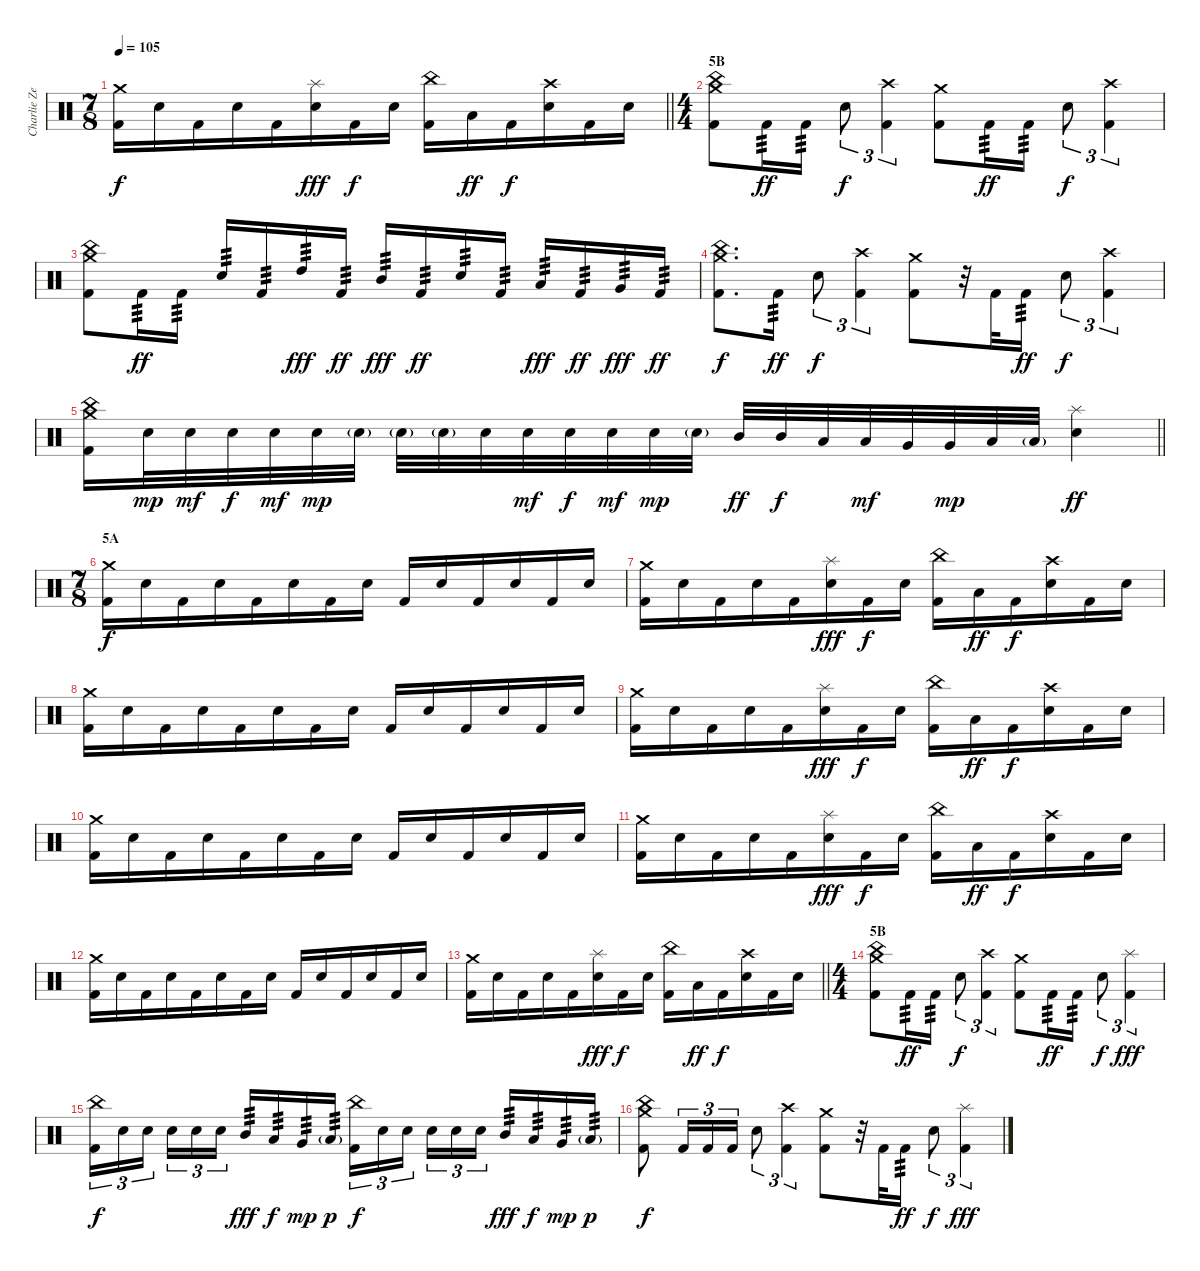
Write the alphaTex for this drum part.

\track ("Charlie Zeleny - Drums" "Charlie Ze") {instrument percussion}
\staff {score}
\articulation defaults
\ts (7 8)
\tempo 105
\clef neutral
\barLineRight lightlight
\ks c
("Crash medium (hit)" "Kick (hit) 2").16{dy f} "Electric Snare (hit)".16 "Kick (hit) 2".16 "Electric Snare (hit)".16 "Kick (hit) 2".16 ("Splash (hit)" "Electric Snare (hit)").16{dy fff} "Kick (hit) 2".16{dy f} "Electric Snare (hit)".16 ("China (hit)" "Kick (hit) 2").16 "Low Floor Tom (hit)".16{dy ff} "Kick (hit) 2".16{dy f} ("Crash high (hit)" "Electric Snare (hit)").16 "Kick (hit) 2".16 "Electric Snare (hit)".16 |
\ts (4 4)
\section ("" "5B")
("Crash medium (hit)" "China (hit)" "Kick (hit) 2").8 "Kick (hit) 2".16{tp 3 dy ff} "Kick (hit) 2".16{tp 3} "Electric Snare (hit)".8{tu (3 2) dy f} ("Crash high (hit)" "Kick (hit) 2").4{tu (3 2)} ("Crash medium (hit)" "Kick (hit) 2").8 "Kick (hit) 2".16{tp 3 dy ff} "Kick (hit) 2".16{tp 3} "Electric Snare (hit)".8{tu (3 2) dy f} ("Crash high (hit)" "Kick (hit) 2").4{tu (3 2)} |
("Crash medium (hit)" "China (hit)" "Kick (hit) 2").8 "Kick (hit) 2".16{tp 3 dy ff} "Kick (hit) 2".16{tp 3} "Electric Snare (hit)".16{tp 3} "Kick (hit) 2".16{tp 3} "High Tom (hit)".16{tp 3 dy fff} "Kick (hit) 2".16{tp 3 dy ff} "Mid Tom (hit)".16{tp 3 dy fff} "Kick (hit) 2".16{tp 3 dy ff} "Electric Snare (hit)".16{tp 3} "Kick (hit) 2".16{tp 3} "Low Tom (hit)".16{tp 3 dy fff} "Kick (hit) 2".16{tp 3 dy ff} "Very Low Tom (hit)".16{tp 3 dy fff} "Kick (hit) 2".16{tp 3 dy ff} |
("Crash medium (hit)" "China (hit)" "Kick (hit) 2").8{d dy f} "Kick (hit) 2".16{tp 3 dy ff} "Electric Snare (hit)".8{tu (3 2) dy f} ("Crash high (hit)" "Kick (hit) 2").4{tu (3 2)} ("Crash medium (hit)" "Kick (hit) 2").8 r.32 "Kick (hit) 2".32 "Kick (hit) 2".16{tp 3 dy ff} "Electric Snare (hit)".8{tu (3 2) dy f} ("Crash high (hit)" "Kick (hit) 2").4{tu (3 2)} |
\barLineRight lightlight
("Crash medium (hit)" "China (hit)" "Kick (hit) 2").16 "Electric Snare (hit)".32{dy mp} "Electric Snare (hit)".32{dy mf} "Electric Snare (hit)".32{dy f} "Electric Snare (hit)".32{dy mf} "Electric Snare (hit)".32{dy mp} "Electric Snare (hit)"{g}.32 "Electric Snare (hit)"{g}.32 "Electric Snare (hit)"{g}.32 "Electric Snare (hit)".32 "Electric Snare (hit)".32{dy mf} "Electric Snare (hit)".32{dy f} "Electric Snare (hit)".32{dy mf} "Electric Snare (hit)".32{dy mp} "Electric Snare (hit)"{g}.32 "Mid Tom (hit)".32{dy ff} "Mid Tom (hit)".32{dy f} "Low Tom (hit)".32 "Low Tom (hit)".32{dy mf} "Very Low Tom (hit)".32 "Very Low Tom (hit)".32{dy mp} "Low Floor Tom (hit)".32 "Low Floor Tom (hit)"{g}.32 ("Splash (hit)" "Electric Snare (hit)").4{dy ff} |
\ts (7 8)
\section ("" "5A")
("Crash medium (hit)" "Kick (hit) 2").16{dy f} "Electric Snare (hit)".16 "Kick (hit) 2".16 "Electric Snare (hit)".16 "Kick (hit) 2".16 "Electric Snare (hit)".16 "Kick (hit) 2".16 "Electric Snare (hit)".16 "Kick (hit) 2".16 "Electric Snare (hit)".16 "Kick (hit) 2".16 "Electric Snare (hit)".16 "Kick (hit) 2".16 "Electric Snare (hit)".16 |
("Crash medium (hit)" "Kick (hit) 2").16 "Electric Snare (hit)".16 "Kick (hit) 2".16 "Electric Snare (hit)".16 "Kick (hit) 2".16 ("Splash (hit)" "Electric Snare (hit)").16{dy fff} "Kick (hit) 2".16{dy f} "Electric Snare (hit)".16 ("China (hit)" "Kick (hit) 2").16 "Low Floor Tom (hit)".16{dy ff} "Kick (hit) 2".16{dy f} ("Crash high (hit)" "Electric Snare (hit)").16 "Kick (hit) 2".16 "Electric Snare (hit)".16 |
("Crash medium (hit)" "Kick (hit) 2").16 "Electric Snare (hit)".16 "Kick (hit) 2".16 "Electric Snare (hit)".16 "Kick (hit) 2".16 "Electric Snare (hit)".16 "Kick (hit) 2".16 "Electric Snare (hit)".16 "Kick (hit) 2".16 "Electric Snare (hit)".16 "Kick (hit) 2".16 "Electric Snare (hit)".16 "Kick (hit) 2".16 "Electric Snare (hit)".16 |
("Crash medium (hit)" "Kick (hit) 2").16 "Electric Snare (hit)".16 "Kick (hit) 2".16 "Electric Snare (hit)".16 "Kick (hit) 2".16 ("Splash (hit)" "Electric Snare (hit)").16{dy fff} "Kick (hit) 2".16{dy f} "Electric Snare (hit)".16 ("China (hit)" "Kick (hit) 2").16 "Low Floor Tom (hit)".16{dy ff} "Kick (hit) 2".16{dy f} ("Crash high (hit)" "Electric Snare (hit)").16 "Kick (hit) 2".16 "Electric Snare (hit)".16 |
("Crash medium (hit)" "Kick (hit) 2").16 "Electric Snare (hit)".16 "Kick (hit) 2".16 "Electric Snare (hit)".16 "Kick (hit) 2".16 "Electric Snare (hit)".16 "Kick (hit) 2".16 "Electric Snare (hit)".16 "Kick (hit) 2".16 "Electric Snare (hit)".16 "Kick (hit) 2".16 "Electric Snare (hit)".16 "Kick (hit) 2".16 "Electric Snare (hit)".16 |
("Crash medium (hit)" "Kick (hit) 2").16 "Electric Snare (hit)".16 "Kick (hit) 2".16 "Electric Snare (hit)".16 "Kick (hit) 2".16 ("Splash (hit)" "Electric Snare (hit)").16{dy fff} "Kick (hit) 2".16{dy f} "Electric Snare (hit)".16 ("China (hit)" "Kick (hit) 2").16 "Low Floor Tom (hit)".16{dy ff} "Kick (hit) 2".16{dy f} ("Crash high (hit)" "Electric Snare (hit)").16 "Kick (hit) 2".16 "Electric Snare (hit)".16 |
("Crash medium (hit)" "Kick (hit) 2").16 "Electric Snare (hit)".16 "Kick (hit) 2".16 "Electric Snare (hit)".16 "Kick (hit) 2".16 "Electric Snare (hit)".16 "Kick (hit) 2".16 "Electric Snare (hit)".16 "Kick (hit) 2".16 "Electric Snare (hit)".16 "Kick (hit) 2".16 "Electric Snare (hit)".16 "Kick (hit) 2".16 "Electric Snare (hit)".16 |
\barLineRight lightlight
("Crash medium (hit)" "Kick (hit) 2").16 "Electric Snare (hit)".16 "Kick (hit) 2".16 "Electric Snare (hit)".16 "Kick (hit) 2".16 ("Splash (hit)" "Electric Snare (hit)").16{dy fff} "Kick (hit) 2".16{dy f} "Electric Snare (hit)".16 ("China (hit)" "Kick (hit) 2").16 "Low Floor Tom (hit)".16{dy ff} "Kick (hit) 2".16{dy f} ("Crash high (hit)" "Electric Snare (hit)").16 "Kick (hit) 2".16 "Electric Snare (hit)".16 |
\ts (4 4)
\section ("" "5B")
("Crash medium (hit)" "China (hit)" "Kick (hit) 2").8 "Kick (hit) 2".16{tp 3 dy ff} "Kick (hit) 2".16{tp 3} "Electric Snare (hit)".8{tu (3 2) dy f} ("Crash high (hit)" "Kick (hit) 2").4{tu (3 2)} ("Crash medium (hit)" "Kick (hit) 2").8 "Kick (hit) 2".16{tp 3 dy ff} "Kick (hit) 2".16{tp 3} "Electric Snare (hit)".8{tu (3 2) dy f} ("Splash (hit)" "Kick (hit) 2").4{tu (3 2) dy fff} |
("China (hit)" "Kick (hit) 2").16{tu (3 2) dy f} "Electric Snare (hit)".16{tu (3 2)} "Electric Snare (hit)".16{tu (3 2) beam splitsecondary} "Electric Snare (hit)".16{tu (3 2)} "Electric Snare (hit)".16{tu (3 2)} "Electric Snare (hit)".16{tu (3 2)} "Mid Tom (hit)".16{tp 3 dy fff} "Low Tom (hit)".16{tp 3 dy f} "Very Low Tom (hit)".16{tp 3 dy mp} "Low Floor Tom (hit)"{g}.16{tp 3 dy p} ("China (hit)" "Kick (hit) 2").16{tu (3 2) dy f} "Electric Snare (hit)".16{tu (3 2)} "Electric Snare (hit)".16{tu (3 2) beam splitsecondary} "Electric Snare (hit)".16{tu (3 2)} "Electric Snare (hit)".16{tu (3 2)} "Electric Snare (hit)".16{tu (3 2)} "Mid Tom (hit)".16{tp 3 dy fff} "Low Tom (hit)".16{tp 3 dy f} "Very Low Tom (hit)".16{tp 3 dy mp} "Low Floor Tom (hit)"{g}.16{tp 3 dy p} |
("Crash medium (hit)" "China (hit)" "Kick (hit) 2").8{dy f} "Kick (hit) 2".16{tu (3 2)} "Kick (hit) 2".16{tu (3 2)} "Kick (hit) 2".16{tu (3 2)} "Electric Snare (hit)".8{tu (3 2)} ("Crash high (hit)" "Kick (hit) 2").4{tu (3 2)} ("Crash medium (hit)" "Kick (hit) 2").8 r.32 "Kick (hit) 2".32 "Kick (hit) 2".16{tp 3 dy ff} "Electric Snare (hit)".8{tu (3 2) dy f} ("Splash (hit)" "Kick (hit) 2").4{tu (3 2) dy fff}
